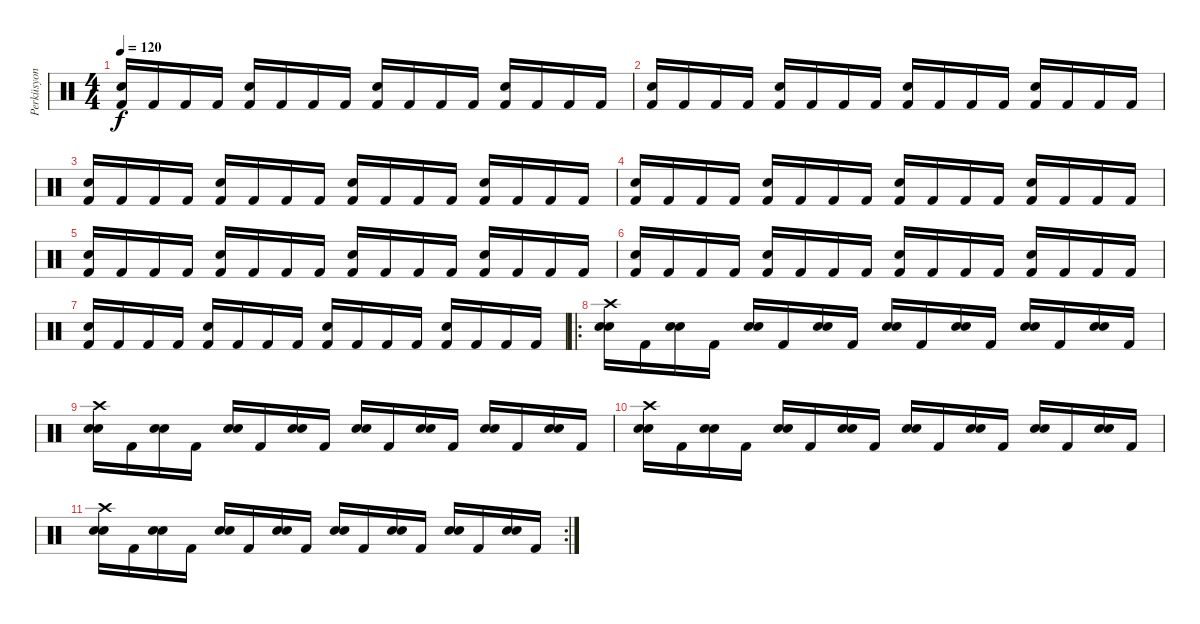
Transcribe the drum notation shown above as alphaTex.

\track ("Perküsyon" "Perküsyon") {instrument percussion}
\staff {score}
\articulation defaults
\ts (4 4)
\tempo 120
\clef neutral
\ks c
("Kick (hit) 2" "Electric Snare (hit)").16{dy f} "Kick (hit) 2".16 "Kick (hit) 2".16 "Kick (hit) 2".16 ("Kick (hit) 2" "Electric Snare (hit)").16 "Kick (hit) 2".16 "Kick (hit) 2".16 "Kick (hit) 2".16 ("Kick (hit) 2" "Electric Snare (hit)").16 "Kick (hit) 2".16 "Kick (hit) 2".16 "Kick (hit) 2".16 ("Kick (hit) 2" "Electric Snare (hit)").16 "Kick (hit) 2".16 "Kick (hit) 2".16 "Kick (hit) 2".16 |
("Kick (hit) 2" "Electric Snare (hit)").16 "Kick (hit) 2".16 "Kick (hit) 2".16 "Kick (hit) 2".16 ("Kick (hit) 2" "Electric Snare (hit)").16 "Kick (hit) 2".16 "Kick (hit) 2".16 "Kick (hit) 2".16 ("Kick (hit) 2" "Electric Snare (hit)").16 "Kick (hit) 2".16 "Kick (hit) 2".16 "Kick (hit) 2".16 ("Kick (hit) 2" "Electric Snare (hit)").16 "Kick (hit) 2".16 "Kick (hit) 2".16 "Kick (hit) 2".16 |
("Kick (hit) 2" "Electric Snare (hit)").16 "Kick (hit) 2".16 "Kick (hit) 2".16 "Kick (hit) 2".16 ("Kick (hit) 2" "Electric Snare (hit)").16 "Kick (hit) 2".16 "Kick (hit) 2".16 "Kick (hit) 2".16 ("Kick (hit) 2" "Electric Snare (hit)").16 "Kick (hit) 2".16 "Kick (hit) 2".16 "Kick (hit) 2".16 ("Kick (hit) 2" "Electric Snare (hit)").16 "Kick (hit) 2".16 "Kick (hit) 2".16 "Kick (hit) 2".16 |
("Kick (hit) 2" "Electric Snare (hit)").16 "Kick (hit) 2".16 "Kick (hit) 2".16 "Kick (hit) 2".16 ("Kick (hit) 2" "Electric Snare (hit)").16 "Kick (hit) 2".16 "Kick (hit) 2".16 "Kick (hit) 2".16 ("Kick (hit) 2" "Electric Snare (hit)").16 "Kick (hit) 2".16 "Kick (hit) 2".16 "Kick (hit) 2".16 ("Kick (hit) 2" "Electric Snare (hit)").16 "Kick (hit) 2".16 "Kick (hit) 2".16 "Kick (hit) 2".16 |
("Kick (hit) 2" "Electric Snare (hit)").16 "Kick (hit) 2".16 "Kick (hit) 2".16 "Kick (hit) 2".16 ("Kick (hit) 2" "Electric Snare (hit)").16 "Kick (hit) 2".16 "Kick (hit) 2".16 "Kick (hit) 2".16 ("Kick (hit) 2" "Electric Snare (hit)").16 "Kick (hit) 2".16 "Kick (hit) 2".16 "Kick (hit) 2".16 ("Kick (hit) 2" "Electric Snare (hit)").16 "Kick (hit) 2".16 "Kick (hit) 2".16 "Kick (hit) 2".16 |
("Kick (hit) 2" "Electric Snare (hit)").16 "Kick (hit) 2".16 "Kick (hit) 2".16 "Kick (hit) 2".16 ("Kick (hit) 2" "Electric Snare (hit)").16 "Kick (hit) 2".16 "Kick (hit) 2".16 "Kick (hit) 2".16 ("Kick (hit) 2" "Electric Snare (hit)").16 "Kick (hit) 2".16 "Kick (hit) 2".16 "Kick (hit) 2".16 ("Kick (hit) 2" "Electric Snare (hit)").16 "Kick (hit) 2".16 "Kick (hit) 2".16 "Kick (hit) 2".16 |
("Kick (hit) 2" "Electric Snare (hit)").16 "Kick (hit) 2".16 "Kick (hit) 2".16 "Kick (hit) 2".16 ("Kick (hit) 2" "Electric Snare (hit)").16 "Kick (hit) 2".16 "Kick (hit) 2".16 "Kick (hit) 2".16 ("Kick (hit) 2" "Electric Snare (hit)").16 "Kick (hit) 2".16 "Kick (hit) 2".16 "Kick (hit) 2".16 ("Kick (hit) 2" "Electric Snare (hit)").16 "Kick (hit) 2".16 "Kick (hit) 2".16 "Kick (hit) 2".16 |
\ro
("Snare (hit) 2" "Crash high (hit)" "Electric Snare (hit)").16 "Kick (hit) 2".16 ("Snare (hit) 2" "Electric Snare (hit)").16 "Kick (hit) 2".16 ("Snare (hit) 2" "Electric Snare (hit)").16 "Kick (hit) 2".16 ("Snare (hit) 2" "Electric Snare (hit)").16 "Kick (hit) 2".16 ("Snare (hit) 2" "Electric Snare (hit)").16 "Kick (hit) 2".16 ("Snare (hit) 2" "Electric Snare (hit)").16 "Kick (hit) 2".16 ("Snare (hit) 2" "Electric Snare (hit)").16 "Kick (hit) 2".16 ("Snare (hit) 2" "Electric Snare (hit)").16 "Kick (hit) 2".16 |
("Snare (hit) 2" "Crash high (hit)" "Electric Snare (hit)").16 "Kick (hit) 2".16 ("Snare (hit) 2" "Electric Snare (hit)").16 "Kick (hit) 2".16 ("Snare (hit) 2" "Electric Snare (hit)").16 "Kick (hit) 2".16 ("Snare (hit) 2" "Electric Snare (hit)").16 "Kick (hit) 2".16 ("Snare (hit) 2" "Electric Snare (hit)").16 "Kick (hit) 2".16 ("Snare (hit) 2" "Electric Snare (hit)").16 "Kick (hit) 2".16 ("Snare (hit) 2" "Electric Snare (hit)").16 "Kick (hit) 2".16 ("Snare (hit) 2" "Electric Snare (hit)").16 "Kick (hit) 2".16 |
("Snare (hit) 2" "Crash high (hit)" "Electric Snare (hit)").16 "Kick (hit) 2".16 ("Snare (hit) 2" "Electric Snare (hit)").16 "Kick (hit) 2".16 ("Snare (hit) 2" "Electric Snare (hit)").16 "Kick (hit) 2".16 ("Snare (hit) 2" "Electric Snare (hit)").16 "Kick (hit) 2".16 ("Snare (hit) 2" "Electric Snare (hit)").16 "Kick (hit) 2".16 ("Snare (hit) 2" "Electric Snare (hit)").16 "Kick (hit) 2".16 ("Snare (hit) 2" "Electric Snare (hit)").16 "Kick (hit) 2".16 ("Snare (hit) 2" "Electric Snare (hit)").16 "Kick (hit) 2".16 |
\rc 2
("Snare (hit) 2" "Crash high (hit)" "Electric Snare (hit)").16 "Kick (hit) 2".16 ("Snare (hit) 2" "Electric Snare (hit)").16 "Kick (hit) 2".16 ("Snare (hit) 2" "Electric Snare (hit)").16 "Kick (hit) 2".16 ("Snare (hit) 2" "Electric Snare (hit)").16 "Kick (hit) 2".16 ("Snare (hit) 2" "Electric Snare (hit)").16 "Kick (hit) 2".16 ("Snare (hit) 2" "Electric Snare (hit)").16 "Kick (hit) 2".16 ("Snare (hit) 2" "Electric Snare (hit)").16 "Kick (hit) 2".16 ("Snare (hit) 2" "Electric Snare (hit)").16 "Kick (hit) 2".16
